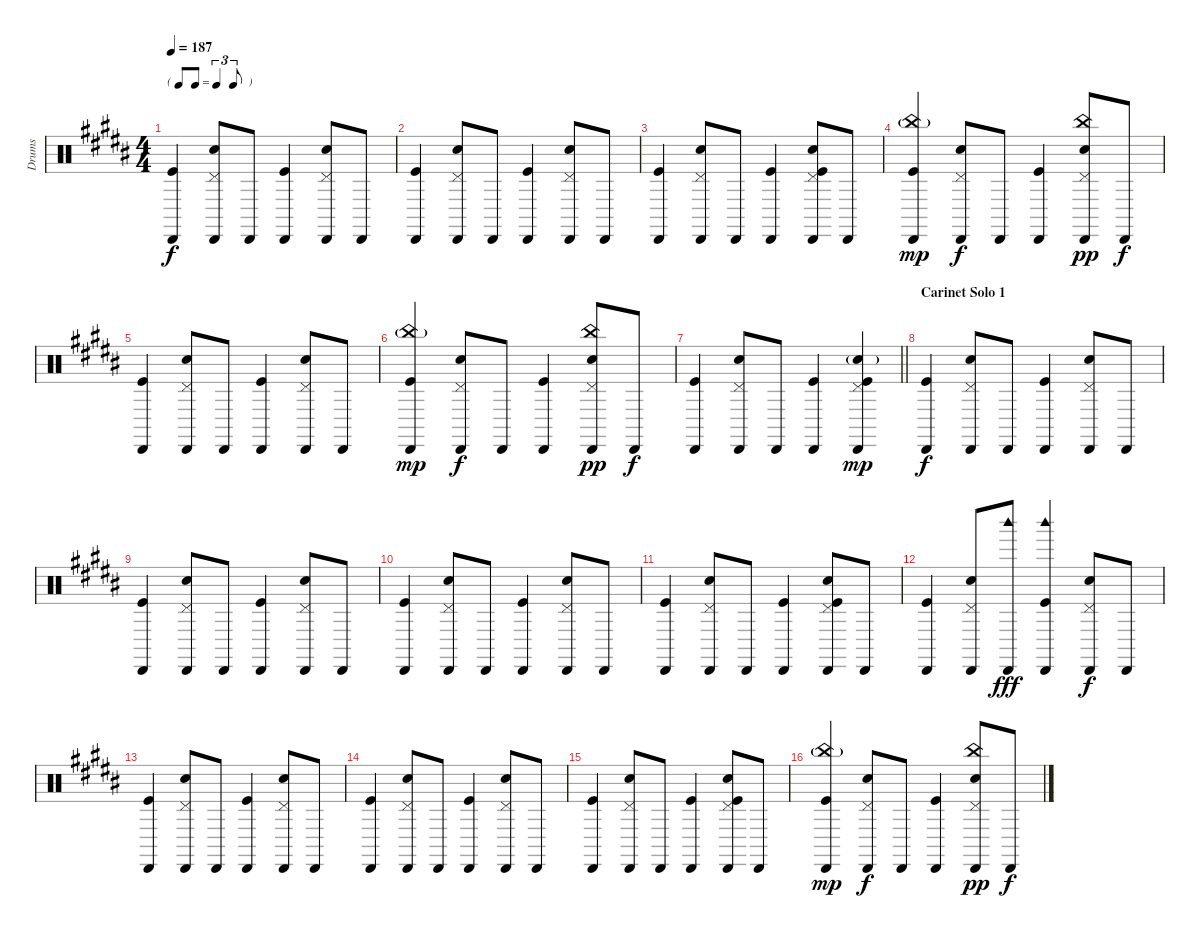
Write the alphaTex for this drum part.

\track ("Drums" "Drums") {instrument percussion}
\staff {score}
\articulation defaults
\ts (4 4)
\tf triplet8th
\tempo 187
\clef neutral
\ks b
("Cabasa (hit)" "Kick (hit)").4{dy f} ("Pedal Hi-Hat (hit)" "Cabasa (hit)" "Snare (hit) 2").8 "Cabasa (hit)".8 ("Cabasa (hit)" "Kick (hit)").4 ("Pedal Hi-Hat (hit)" "Cabasa (hit)" "Snare (hit) 2").8 "Cabasa (hit)".8 |
("Cabasa (hit)" "Kick (hit)").4 ("Pedal Hi-Hat (hit)" "Cabasa (hit)" "Snare (hit) 2").8 "Cabasa (hit)".8 ("Cabasa (hit)" "Kick (hit)").4 ("Pedal Hi-Hat (hit)" "Cabasa (hit)" "Snare (hit) 2").8 "Cabasa (hit)".8 |
("Cabasa (hit)" "Kick (hit)").4 ("Pedal Hi-Hat (hit)" "Cabasa (hit)" "Snare (hit) 2").8 "Cabasa (hit)".8 ("Cabasa (hit)" "Kick (hit)").4 ("Pedal Hi-Hat (hit)" "Cabasa (hit)" "Snare (hit) 2" "Kick (hit)").8 "Cabasa (hit)".8 |
("China (hit)"{g} "Cabasa (hit)" "Kick (hit)").4{dy mp} ("Pedal Hi-Hat (hit)" "Cabasa (hit)" "Snare (hit) 2").8{dy f} "Cabasa (hit)".8 ("Cabasa (hit)" "Kick (hit)").4 ("Pedal Hi-Hat (hit)" "Cabasa (hit)" "Snare (hit) 2" "China (hit)").8{dy pp} "Cabasa (hit)".8{dy f} |
("Cabasa (hit)" "Kick (hit)").4 ("Pedal Hi-Hat (hit)" "Cabasa (hit)" "Snare (hit) 2").8 "Cabasa (hit)".8 ("Cabasa (hit)" "Kick (hit)").4 ("Pedal Hi-Hat (hit)" "Cabasa (hit)" "Snare (hit) 2").8 "Cabasa (hit)".8 |
("China (hit)"{g} "Cabasa (hit)" "Kick (hit)").4{dy mp} ("Pedal Hi-Hat (hit)" "Cabasa (hit)" "Snare (hit) 2").8{dy f} "Cabasa (hit)".8 ("Cabasa (hit)" "Kick (hit)").4 ("Pedal Hi-Hat (hit)" "Cabasa (hit)" "Snare (hit) 2" "China (hit)").8{dy pp} "Cabasa (hit)".8{dy f} |
\barLineRight lightlight
("Cabasa (hit)" "Kick (hit)").4 ("Pedal Hi-Hat (hit)" "Cabasa (hit)" "Snare (hit) 2").8 "Cabasa (hit)".8 ("Cabasa (hit)" "Kick (hit)").4 ("Pedal Hi-Hat (hit)" "Cabasa (hit)" "Snare (hit) 2"{g} "Kick (hit)").4{dy mp} |
\section ("" "Carinet Solo 1")
("Cabasa (hit)" "Kick (hit)").4{dy f} ("Pedal Hi-Hat (hit)" "Cabasa (hit)" "Snare (hit) 2").8 "Cabasa (hit)".8 ("Cabasa (hit)" "Kick (hit)").4 ("Pedal Hi-Hat (hit)" "Cabasa (hit)" "Snare (hit) 2").8 "Cabasa (hit)".8 |
("Cabasa (hit)" "Kick (hit)").4 ("Pedal Hi-Hat (hit)" "Cabasa (hit)" "Snare (hit) 2").8 "Cabasa (hit)".8 ("Cabasa (hit)" "Kick (hit)").4 ("Pedal Hi-Hat (hit)" "Cabasa (hit)" "Snare (hit) 2").8 "Cabasa (hit)".8 |
("Cabasa (hit)" "Kick (hit)").4 ("Pedal Hi-Hat (hit)" "Cabasa (hit)" "Snare (hit) 2").8 "Cabasa (hit)".8 ("Cabasa (hit)" "Kick (hit)").4 ("Pedal Hi-Hat (hit)" "Cabasa (hit)" "Snare (hit) 2").8 "Cabasa (hit)".8 |
("Cabasa (hit)" "Kick (hit)").4 ("Pedal Hi-Hat (hit)" "Cabasa (hit)" "Snare (hit) 2").8 "Cabasa (hit)".8 ("Cabasa (hit)" "Kick (hit)").4 ("Pedal Hi-Hat (hit)" "Cabasa (hit)" "Snare (hit) 2" "Kick (hit)").8 "Cabasa (hit)".8 |
("Cabasa (hit)" "Kick (hit)").4 ("Pedal Hi-Hat (hit)" "Cabasa (hit)" "Snare (hit) 2").8 ("Cabasa (hit)" "Woodblock high (hit)").8{dy fff} ("Cabasa (hit)" "Woodblock high (hit)" "Kick (hit)").4 ("Pedal Hi-Hat (hit)" "Cabasa (hit)" "Snare (hit) 2").8{dy f} "Cabasa (hit)".8 |
("Cabasa (hit)" "Kick (hit)").4 ("Pedal Hi-Hat (hit)" "Cabasa (hit)" "Snare (hit) 2").8 "Cabasa (hit)".8 ("Cabasa (hit)" "Kick (hit)").4 ("Pedal Hi-Hat (hit)" "Cabasa (hit)" "Snare (hit) 2").8 "Cabasa (hit)".8 |
("Cabasa (hit)" "Kick (hit)").4 ("Pedal Hi-Hat (hit)" "Cabasa (hit)" "Snare (hit) 2").8 "Cabasa (hit)".8 ("Cabasa (hit)" "Kick (hit)").4 ("Pedal Hi-Hat (hit)" "Cabasa (hit)" "Snare (hit) 2").8 "Cabasa (hit)".8 |
("Cabasa (hit)" "Kick (hit)").4 ("Pedal Hi-Hat (hit)" "Cabasa (hit)" "Snare (hit) 2").8 "Cabasa (hit)".8 ("Cabasa (hit)" "Kick (hit)").4 ("Pedal Hi-Hat (hit)" "Cabasa (hit)" "Snare (hit) 2" "Kick (hit)").8 "Cabasa (hit)".8 |
("China (hit)"{g} "Cabasa (hit)" "Kick (hit)").4{dy mp} ("Pedal Hi-Hat (hit)" "Cabasa (hit)" "Snare (hit) 2").8{dy f} "Cabasa (hit)".8 ("Cabasa (hit)" "Kick (hit)").4 ("Pedal Hi-Hat (hit)" "Cabasa (hit)" "Snare (hit) 2" "China (hit)").8{dy pp} "Cabasa (hit)".8{dy f}
